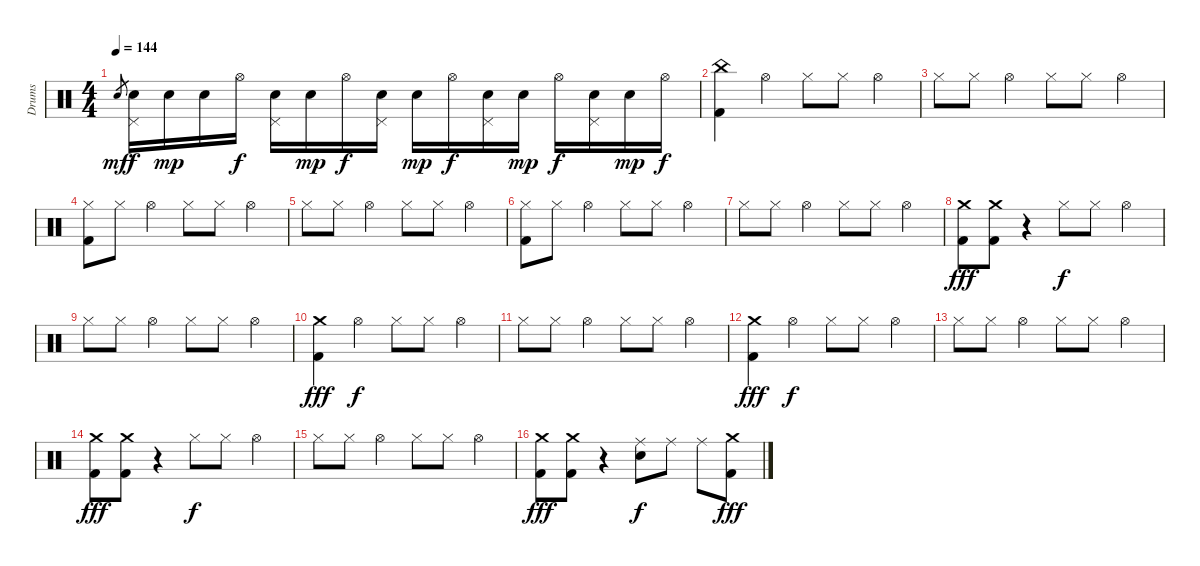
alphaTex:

\bracketExtendMode groupsimilarinstruments
\otherSystemsTrackNameOrientation horizontal
\track ("Drumkit" "Drums") {instrument percussion}
\staff {score}
\articulation defaults
\ts (4 4)
\tempo 144
\clef neutral
\ks c "Snare (hit) 2".8{gr dy mf beam Up}
("Pedal Hi-Hat (hit)" "Snare (hit) 2").16{dy f beam Down} "Snare (hit) 2".16{dy mp beam Down} "Snare (hit) 2".16{beam Down} "Hi-Hat (open)".16{dy f beam Down} ("Pedal Hi-Hat (hit)" "Snare (hit) 2").16{beam Down} "Snare (hit) 2".16{dy mp beam Down} "Hi-Hat (open)".16{dy f beam Down} ("Pedal Hi-Hat (hit)" "Snare (hit) 2").16{beam Down} "Snare (hit) 2".16{dy mp beam Down} "Hi-Hat (open)".16{dy f beam Down} ("Pedal Hi-Hat (hit)" "Snare (hit) 2").16{beam Down} "Snare (hit) 2".16{dy mp beam Down} "Hi-Hat (open)".16{dy f beam Down} ("Pedal Hi-Hat (hit)" "Snare (hit) 2").16{beam Down} "Snare (hit) 2".16{dy mp beam Down} "Hi-Hat (open)".16{dy f beam Down} |
("China (hit)" "Kick (hit) 2").4{beam Down} "Hi-Hat (open)".4{beam Down} "Hi-Hat (closed)".8{beam Down} "Hi-Hat (closed)".8{beam Down} "Hi-Hat (open)".4{beam Down} |
"Hi-Hat (closed)".8{beam Down} "Hi-Hat (closed)".8{beam Down} "Hi-Hat (open)".4{beam Down} "Hi-Hat (closed)".8{beam Down} "Hi-Hat (closed)".8{beam Down} "Hi-Hat (open)".4{beam Down} |
("Hi-Hat (closed)" "Kick (hit) 2").8{beam Down} "Hi-Hat (closed)".8{beam Down} "Hi-Hat (open)".4{beam Down} "Hi-Hat (closed)".8{beam Down} "Hi-Hat (closed)".8{beam Down} "Hi-Hat (open)".4{beam Down} |
"Hi-Hat (closed)".8{beam Down} "Hi-Hat (closed)".8{beam Down} "Hi-Hat (open)".4{beam Down} "Hi-Hat (closed)".8{beam Down} "Hi-Hat (closed)".8{beam Down} "Hi-Hat (open)".4{beam Down} |
("Hi-Hat (closed)" "Kick (hit) 2").8{beam Down} "Hi-Hat (closed)".8{beam Down} "Hi-Hat (open)".4{beam Down} "Hi-Hat (closed)".8{beam Down} "Hi-Hat (closed)".8{beam Down} "Hi-Hat (open)".4{beam Down} |
"Hi-Hat (closed)".8{beam Down} "Hi-Hat (closed)".8{beam Down} "Hi-Hat (open)".4{beam Down} "Hi-Hat (closed)".8{beam Down} "Hi-Hat (closed)".8{beam Down} "Hi-Hat (open)".4{beam Down} |
("Crash medium (hit)" "Kick (hit) 2").8{dy fff beam Down} ("Crash medium (hit)" "Kick (hit) 2").8{beam Down} r.4{beam Down} "Hi-Hat (closed)".8{dy f beam Down} "Hi-Hat (closed)".8{beam Down} "Hi-Hat (open)".4{beam Down} |
"Hi-Hat (closed)".8{beam Down} "Hi-Hat (closed)".8{beam Down} "Hi-Hat (open)".4{beam Down} "Hi-Hat (closed)".8{beam Down} "Hi-Hat (closed)".8{beam Down} "Hi-Hat (open)".4{beam Down} |
("Crash medium (hit)" "Kick (hit) 2").4{dy fff beam Down} "Hi-Hat (open)".4{dy f beam Down} "Hi-Hat (closed)".8{beam Down} "Hi-Hat (closed)".8{beam Down} "Hi-Hat (open)".4{beam Down} |
"Hi-Hat (closed)".8{beam Down} "Hi-Hat (closed)".8{beam Down} "Hi-Hat (open)".4{beam Down} "Hi-Hat (closed)".8{beam Down} "Hi-Hat (closed)".8{beam Down} "Hi-Hat (open)".4{beam Down} |
("Crash medium (hit)" "Kick (hit) 2").4{dy fff beam Down} "Hi-Hat (open)".4{dy f beam Down} "Hi-Hat (closed)".8{beam Down} "Hi-Hat (closed)".8{beam Down} "Hi-Hat (open)".4{beam Down} |
"Hi-Hat (closed)".8{beam Down} "Hi-Hat (closed)".8{beam Down} "Hi-Hat (open)".4{beam Down} "Hi-Hat (closed)".8{beam Down} "Hi-Hat (closed)".8{beam Down} "Hi-Hat (open)".4{beam Down} |
("Crash medium (hit)" "Kick (hit) 2").8{dy fff beam Down} ("Crash medium (hit)" "Kick (hit) 2").8{beam Down} r.4{beam Down} "Hi-Hat (closed)".8{dy f beam Down} "Hi-Hat (closed)".8{beam Down} "Hi-Hat (open)".4{beam Down} |
"Hi-Hat (closed)".8{beam Down} "Hi-Hat (closed)".8{beam Down} "Hi-Hat (open)".4{beam Down} "Hi-Hat (closed)".8{beam Down} "Hi-Hat (closed)".8{beam Down} "Hi-Hat (open)".4{beam Down} |
("Crash medium (hit)" "Kick (hit) 2").8{dy fff beam Down} ("Crash medium (hit)" "Kick (hit) 2").8{beam Down} r.4{beam Down} ("Ride (middle)" "Snare (hit) 2").8{dy f beam Down} "Ride (middle)".8{beam Down} "Ride (middle)".8{beam Down} ("Crash medium (hit)" "Kick (hit) 2").8{dy fff beam Down}
